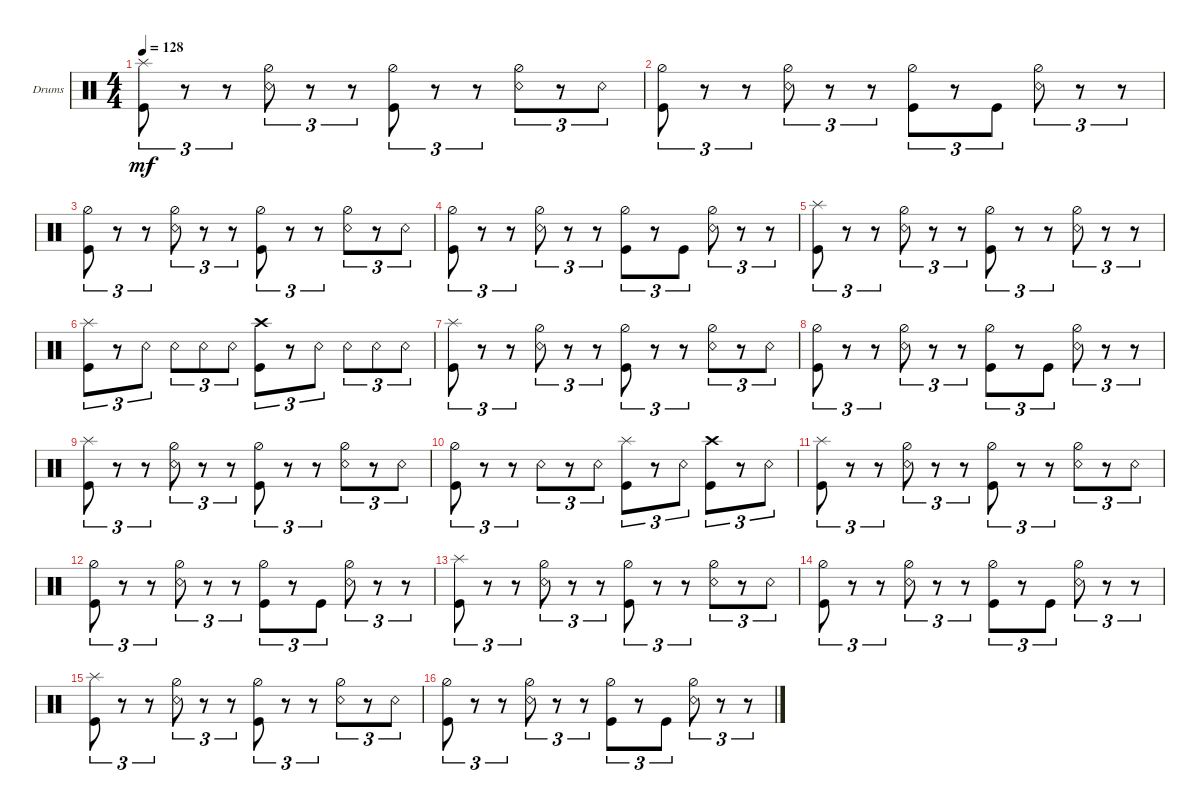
\defaultSystemsLayout 4
\bracketExtendMode groupsimilarinstruments
\firstSystemTrackNameOrientation horizontal
\otherSystemsTrackNameOrientation horizontal
\track ("Drumkit" "Drums") {instrument percussion}
\staff {score}
\articulation defaults
\ts (4 4)
\tempo 128
\clef neutral
\ks c
("Kick (hit)" "Splash (hit)").8{tu (3 2) dy mf} r.8{tu (3 2)} r.8{tu (3 2)} ("Snare (rim shot)" "Hi-Hat (half)").8{tu (3 2)} r.8{tu (3 2)} r.8{tu (3 2)} ("Kick (hit)" "Hi-Hat (half)").8{tu (3 2)} r.8{tu (3 2)} r.8{tu (3 2)} ("Snare (rim shot)" "Hi-Hat (half)").8{tu (3 2)} r.8{tu (3 2)} "Snare (rim shot)".8{tu (3 2)} |
("Kick (hit)" "Hi-Hat (half)").8{tu (3 2)} r.8{tu (3 2)} r.8{tu (3 2)} ("Snare (rim shot)" "Hi-Hat (half)").8{tu (3 2)} r.8{tu (3 2)} r.8{tu (3 2)} ("Kick (hit)" "Hi-Hat (half)").8{tu (3 2)} r.8{tu (3 2)} "Kick (hit)".8{tu (3 2)} ("Snare (rim shot)" "Hi-Hat (half)").8{tu (3 2)} r.8{tu (3 2)} r.8{tu (3 2)} |
("Kick (hit)" "Hi-Hat (half)").8{tu (3 2)} r.8{tu (3 2)} r.8{tu (3 2)} ("Snare (rim shot)" "Hi-Hat (half)").8{tu (3 2)} r.8{tu (3 2)} r.8{tu (3 2)} ("Kick (hit)" "Hi-Hat (half)").8{tu (3 2)} r.8{tu (3 2)} r.8{tu (3 2)} ("Snare (rim shot)" "Hi-Hat (half)").8{tu (3 2)} r.8{tu (3 2)} "Snare (rim shot)".8{tu (3 2)} |
("Kick (hit)" "Hi-Hat (half)").8{tu (3 2)} r.8{tu (3 2)} r.8{tu (3 2)} ("Snare (rim shot)" "Hi-Hat (half)").8{tu (3 2)} r.8{tu (3 2)} r.8{tu (3 2)} ("Kick (hit)" "Hi-Hat (half)").8{tu (3 2)} r.8{tu (3 2)} "Kick (hit)".8{tu (3 2)} ("Snare (rim shot)" "Hi-Hat (half)").8{tu (3 2)} r.8{tu (3 2)} r.8{tu (3 2)} |
("Kick (hit)" "Splash (hit)").8{tu (3 2)} r.8{tu (3 2)} r.8{tu (3 2)} ("Snare (rim shot)" "Hi-Hat (half)").8{tu (3 2)} r.8{tu (3 2)} r.8{tu (3 2)} ("Kick (hit)" "Hi-Hat (half)").8{tu (3 2)} r.8{tu (3 2)} r.8{tu (3 2)} ("Snare (rim shot)" "Hi-Hat (half)").8{tu (3 2)} r.8{tu (3 2)} r.8{tu (3 2)} |
("Kick (hit)" "Splash (hit)").8{tu (3 2)} r.8{tu (3 2)} "Snare (rim shot)".8{tu (3 2)} "Snare (rim shot)".8{tu (3 2)} "Snare (rim shot)".8{tu (3 2)} "Snare (rim shot)".8{tu (3 2)} ("Kick (hit)" "Crash high (hit)").8{tu (3 2)} r.8{tu (3 2)} "Snare (rim shot)".8{tu (3 2)} "Snare (rim shot)".8{tu (3 2)} "Snare (rim shot)".8{tu (3 2)} "Snare (rim shot)".8{tu (3 2)} |
("Kick (hit)" "Splash (hit)").8{tu (3 2)} r.8{tu (3 2)} r.8{tu (3 2)} ("Snare (rim shot)" "Hi-Hat (half)").8{tu (3 2)} r.8{tu (3 2)} r.8{tu (3 2)} ("Kick (hit)" "Hi-Hat (half)").8{tu (3 2)} r.8{tu (3 2)} r.8{tu (3 2)} ("Snare (rim shot)" "Hi-Hat (half)").8{tu (3 2)} r.8{tu (3 2)} "Snare (rim shot)".8{tu (3 2)} |
("Kick (hit)" "Hi-Hat (half)").8{tu (3 2)} r.8{tu (3 2)} r.8{tu (3 2)} ("Snare (rim shot)" "Hi-Hat (half)").8{tu (3 2)} r.8{tu (3 2)} r.8{tu (3 2)} ("Kick (hit)" "Hi-Hat (half)").8{tu (3 2)} r.8{tu (3 2)} "Kick (hit)".8{tu (3 2)} ("Snare (rim shot)" "Hi-Hat (half)").8{tu (3 2)} r.8{tu (3 2)} r.8{tu (3 2)} |
("Kick (hit)" "Splash (hit)").8{tu (3 2)} r.8{tu (3 2)} r.8{tu (3 2)} ("Snare (rim shot)" "Hi-Hat (half)").8{tu (3 2)} r.8{tu (3 2)} r.8{tu (3 2)} ("Kick (hit)" "Hi-Hat (half)").8{tu (3 2)} r.8{tu (3 2)} r.8{tu (3 2)} ("Snare (rim shot)" "Hi-Hat (half)").8{tu (3 2)} r.8{tu (3 2)} "Snare (rim shot)".8{tu (3 2)} |
("Kick (hit)" "Hi-Hat (half)").8{tu (3 2)} r.8{tu (3 2)} r.8{tu (3 2)} "Snare (rim shot)".8{tu (3 2)} r.8{tu (3 2)} "Snare (rim shot)".8{tu (3 2)} ("Kick (hit)" "Splash (hit)").8{tu (3 2)} r.8{tu (3 2)} "Snare (rim shot)".8{tu (3 2)} ("Kick (hit)" "Crash high (hit)").8{tu (3 2)} r.8{tu (3 2)} "Snare (rim shot)".8{tu (3 2)} |
("Kick (hit)" "Splash (hit)").8{tu (3 2)} r.8{tu (3 2)} r.8{tu (3 2)} ("Snare (rim shot)" "Hi-Hat (half)").8{tu (3 2)} r.8{tu (3 2)} r.8{tu (3 2)} ("Kick (hit)" "Hi-Hat (half)").8{tu (3 2)} r.8{tu (3 2)} r.8{tu (3 2)} ("Snare (rim shot)" "Hi-Hat (half)").8{tu (3 2)} r.8{tu (3 2)} "Snare (rim shot)".8{tu (3 2)} |
("Kick (hit)" "Hi-Hat (half)").8{tu (3 2)} r.8{tu (3 2)} r.8{tu (3 2)} ("Snare (rim shot)" "Hi-Hat (half)").8{tu (3 2)} r.8{tu (3 2)} r.8{tu (3 2)} ("Kick (hit)" "Hi-Hat (half)").8{tu (3 2)} r.8{tu (3 2)} "Kick (hit)".8{tu (3 2)} ("Snare (rim shot)" "Hi-Hat (half)").8{tu (3 2)} r.8{tu (3 2)} r.8{tu (3 2)} |
("Kick (hit)" "Splash (hit)").8{tu (3 2)} r.8{tu (3 2)} r.8{tu (3 2)} ("Snare (rim shot)" "Hi-Hat (half)").8{tu (3 2)} r.8{tu (3 2)} r.8{tu (3 2)} ("Kick (hit)" "Hi-Hat (half)").8{tu (3 2)} r.8{tu (3 2)} r.8{tu (3 2)} ("Snare (rim shot)" "Hi-Hat (half)").8{tu (3 2)} r.8{tu (3 2)} "Snare (rim shot)".8{tu (3 2)} |
("Kick (hit)" "Hi-Hat (half)").8{tu (3 2)} r.8{tu (3 2)} r.8{tu (3 2)} ("Snare (rim shot)" "Hi-Hat (half)").8{tu (3 2)} r.8{tu (3 2)} r.8{tu (3 2)} ("Kick (hit)" "Hi-Hat (half)").8{tu (3 2)} r.8{tu (3 2)} "Kick (hit)".8{tu (3 2)} ("Snare (rim shot)" "Hi-Hat (half)").8{tu (3 2)} r.8{tu (3 2)} r.8{tu (3 2)} |
("Kick (hit)" "Splash (hit)").8{tu (3 2)} r.8{tu (3 2)} r.8{tu (3 2)} ("Snare (rim shot)" "Hi-Hat (half)").8{tu (3 2)} r.8{tu (3 2)} r.8{tu (3 2)} ("Kick (hit)" "Hi-Hat (half)").8{tu (3 2)} r.8{tu (3 2)} r.8{tu (3 2)} ("Snare (rim shot)" "Hi-Hat (half)").8{tu (3 2)} r.8{tu (3 2)} "Snare (rim shot)".8{tu (3 2)} |
("Kick (hit)" "Hi-Hat (half)").8{tu (3 2)} r.8{tu (3 2)} r.8{tu (3 2)} ("Snare (rim shot)" "Hi-Hat (half)").8{tu (3 2)} r.8{tu (3 2)} r.8{tu (3 2)} ("Kick (hit)" "Hi-Hat (half)").8{tu (3 2)} r.8{tu (3 2)} "Kick (hit)".8{tu (3 2)} ("Snare (rim shot)" "Hi-Hat (half)").8{tu (3 2)} r.8{tu (3 2)} r.8{tu (3 2)}
